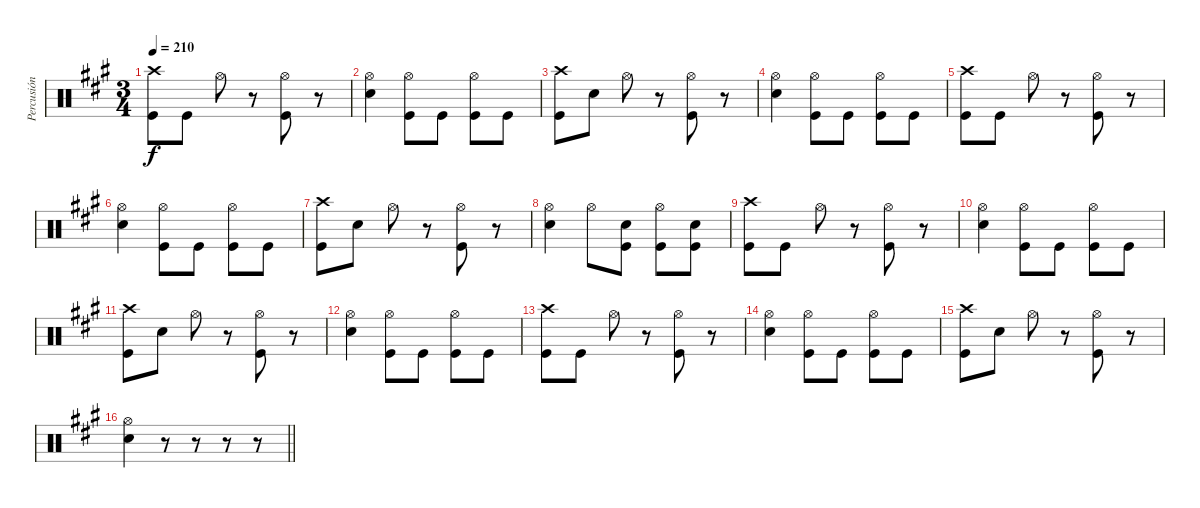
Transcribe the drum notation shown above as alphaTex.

\track ("Percusión" "Percusión") {instrument percussion}
\staff {score}
\articulation defaults
\ts (3 4)
\tempo 210
\clef neutral
\ks a
("Crash high (hit)" "Kick (hit)").8{dy f} "Kick (hit)".8 "Hi-Hat (open)".8 r.8 ("Hi-Hat (open)" "Kick (hit)").8 r.8 |
("Hi-Hat (open)" "Electric Snare (hit)").4 ("Hi-Hat (open)" "Kick (hit)").8 "Kick (hit)".8 ("Hi-Hat (open)" "Kick (hit)").8 "Kick (hit)".8 |
("Crash high (hit)" "Kick (hit)").8 "Electric Snare (hit)".8 "Hi-Hat (open)".8 r.8 ("Hi-Hat (open)" "Kick (hit)").8 r.8 |
("Hi-Hat (open)" "Electric Snare (hit)").4 ("Hi-Hat (open)" "Kick (hit)").8 "Kick (hit)".8 ("Hi-Hat (open)" "Kick (hit)").8 "Kick (hit)".8 |
("Crash high (hit)" "Kick (hit)").8 "Kick (hit)".8 "Hi-Hat (open)".8 r.8 ("Hi-Hat (open)" "Kick (hit)").8 r.8 |
("Hi-Hat (open)" "Electric Snare (hit)").4 ("Hi-Hat (open)" "Kick (hit)").8 "Kick (hit)".8 ("Hi-Hat (open)" "Kick (hit)").8 "Kick (hit)".8 |
("Crash high (hit)" "Kick (hit)").8 "Electric Snare (hit)".8 "Hi-Hat (open)".8 r.8 ("Hi-Hat (open)" "Kick (hit)").8 r.8 |
("Hi-Hat (open)" "Electric Snare (hit)").4 "Hi-Hat (open)".8 ("Electric Snare (hit)" "Kick (hit)").8 ("Hi-Hat (open)" "Kick (hit)").8 ("Electric Snare (hit)" "Kick (hit)").8 |
("Crash high (hit)" "Kick (hit)").8 "Kick (hit)".8 "Hi-Hat (open)".8 r.8 ("Hi-Hat (open)" "Kick (hit)").8 r.8 |
("Hi-Hat (open)" "Electric Snare (hit)").4 ("Hi-Hat (open)" "Kick (hit)").8 "Kick (hit)".8 ("Hi-Hat (open)" "Kick (hit)").8 "Kick (hit)".8 |
("Crash high (hit)" "Kick (hit)").8 "Electric Snare (hit)".8 "Hi-Hat (open)".8 r.8 ("Hi-Hat (open)" "Kick (hit)").8 r.8 |
("Hi-Hat (open)" "Electric Snare (hit)").4 ("Hi-Hat (open)" "Kick (hit)").8 "Kick (hit)".8 ("Hi-Hat (open)" "Kick (hit)").8 "Kick (hit)".8 |
("Crash high (hit)" "Kick (hit)").8 "Kick (hit)".8 "Hi-Hat (open)".8 r.8 ("Hi-Hat (open)" "Kick (hit)").8 r.8 |
("Hi-Hat (open)" "Electric Snare (hit)").4 ("Hi-Hat (open)" "Kick (hit)").8 "Kick (hit)".8 ("Hi-Hat (open)" "Kick (hit)").8 "Kick (hit)".8 |
("Crash high (hit)" "Kick (hit)").8 "Electric Snare (hit)".8 "Hi-Hat (open)".8 r.8 ("Hi-Hat (open)" "Kick (hit)").8 r.8 |
\barLineRight lightlight
("Hi-Hat (open)" "Electric Snare (hit)").4 r.8 r.8 r.8 r.8
